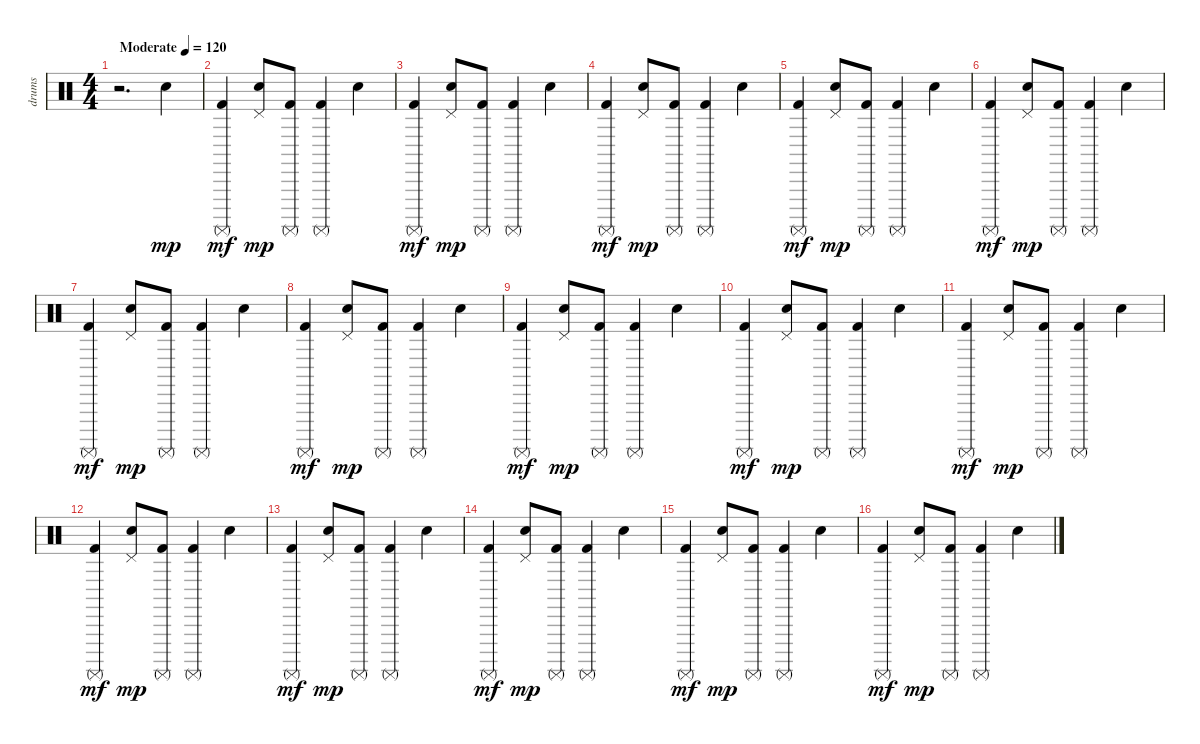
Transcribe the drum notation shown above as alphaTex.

\track ("drums" "drums") {instrument percussion}
\staff {score}
\articulation defaults
\ts (4 4)
\tempo (120 "Moderate")
\clef neutral
\ks c
r.2{d dy mp} "Snare (hit) 2".4 |
("Surdo (mute)" "Kick (hit) 2").4{dy mf} ("Snare (hit) 2" "Pedal Hi-Hat (hit)").8{dy mp} ("Kick (hit) 2" "Surdo (mute)").8 ("Kick (hit) 2" "Surdo (mute)").4 "Snare (hit) 2".4 |
("Surdo (mute)" "Kick (hit) 2").4{dy mf} ("Snare (hit) 2" "Pedal Hi-Hat (hit)").8{dy mp} ("Kick (hit) 2" "Surdo (mute)").8 ("Kick (hit) 2" "Surdo (mute)").4 "Snare (hit) 2".4 |
("Surdo (mute)" "Kick (hit) 2").4{dy mf} ("Snare (hit) 2" "Pedal Hi-Hat (hit)").8{dy mp} ("Kick (hit) 2" "Surdo (mute)").8 ("Kick (hit) 2" "Surdo (mute)").4 "Snare (hit) 2".4 |
("Surdo (mute)" "Kick (hit) 2").4{dy mf} ("Snare (hit) 2" "Pedal Hi-Hat (hit)").8{dy mp} ("Kick (hit) 2" "Surdo (mute)").8 ("Kick (hit) 2" "Surdo (mute)").4 "Snare (hit) 2".4 |
("Surdo (mute)" "Kick (hit) 2").4{dy mf} ("Snare (hit) 2" "Pedal Hi-Hat (hit)").8{dy mp} ("Kick (hit) 2" "Surdo (mute)").8 ("Kick (hit) 2" "Surdo (mute)").4 "Snare (hit) 2".4 |
("Surdo (mute)" "Kick (hit) 2").4{dy mf} ("Snare (hit) 2" "Pedal Hi-Hat (hit)").8{dy mp} ("Kick (hit) 2" "Surdo (mute)").8 ("Kick (hit) 2" "Surdo (mute)").4 "Snare (hit) 2".4 |
("Surdo (mute)" "Kick (hit) 2").4{dy mf} ("Snare (hit) 2" "Pedal Hi-Hat (hit)").8{dy mp} ("Kick (hit) 2" "Surdo (mute)").8 ("Kick (hit) 2" "Surdo (mute)").4 "Snare (hit) 2".4 |
("Surdo (mute)" "Kick (hit) 2").4{dy mf} ("Snare (hit) 2" "Pedal Hi-Hat (hit)").8{dy mp} ("Kick (hit) 2" "Surdo (mute)").8 ("Kick (hit) 2" "Surdo (mute)").4 "Snare (hit) 2".4 |
("Surdo (mute)" "Kick (hit) 2").4{dy mf} ("Snare (hit) 2" "Pedal Hi-Hat (hit)").8{dy mp} ("Kick (hit) 2" "Surdo (mute)").8 ("Kick (hit) 2" "Surdo (mute)").4 "Snare (hit) 2".4 |
("Surdo (mute)" "Kick (hit) 2").4{dy mf} ("Snare (hit) 2" "Pedal Hi-Hat (hit)").8{dy mp} ("Kick (hit) 2" "Surdo (mute)").8 ("Kick (hit) 2" "Surdo (mute)").4 "Snare (hit) 2".4 |
("Surdo (mute)" "Kick (hit) 2").4{dy mf} ("Snare (hit) 2" "Pedal Hi-Hat (hit)").8{dy mp} ("Kick (hit) 2" "Surdo (mute)").8 ("Kick (hit) 2" "Surdo (mute)").4 "Snare (hit) 2".4 |
("Surdo (mute)" "Kick (hit) 2").4{dy mf} ("Snare (hit) 2" "Pedal Hi-Hat (hit)").8{dy mp} ("Kick (hit) 2" "Surdo (mute)").8 ("Kick (hit) 2" "Surdo (mute)").4 "Snare (hit) 2".4 |
("Surdo (mute)" "Kick (hit) 2").4{dy mf} ("Snare (hit) 2" "Pedal Hi-Hat (hit)").8{dy mp} ("Kick (hit) 2" "Surdo (mute)").8 ("Kick (hit) 2" "Surdo (mute)").4 "Snare (hit) 2".4 |
("Surdo (mute)" "Kick (hit) 2").4{dy mf} ("Snare (hit) 2" "Pedal Hi-Hat (hit)").8{dy mp} ("Kick (hit) 2" "Surdo (mute)").8 ("Kick (hit) 2" "Surdo (mute)").4 "Snare (hit) 2".4 |
("Surdo (mute)" "Kick (hit) 2").4{dy mf} ("Snare (hit) 2" "Pedal Hi-Hat (hit)").8{dy mp} ("Kick (hit) 2" "Surdo (mute)").8 ("Kick (hit) 2" "Surdo (mute)").4 "Snare (hit) 2".4
